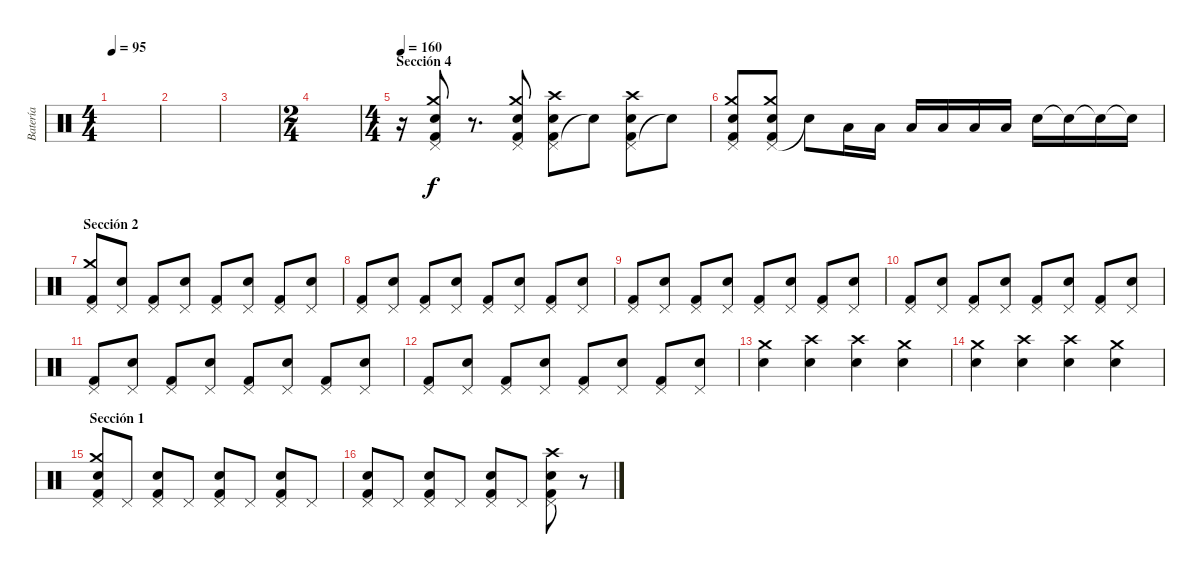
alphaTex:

\track ("Batería" "Batería") {instrument percussion}
\staff {score}
\articulation defaults
\ts (4 4)
\tempo 95
\clef neutral
\ks c
|
|
|
\ts (2 4)
|
\ts (4 4)
\section ("" "Sección 4")
\tempo 160
r.16 ("Pedal Hi-Hat (hit)" "Crash medium (hit)" "Electric Snare (hit)" "Kick (hit) 2").8 r.8{d} ("Pedal Hi-Hat (hit)" "Crash medium (hit)" "Electric Snare (hit)" "Kick (hit) 2").8 ("Pedal Hi-Hat (hit)" "Crash high (hit)" "Electric Snare (hit)" "Kick (hit) 2").8 "Electric Snare (hit)"{t}.8 ("Pedal Hi-Hat (hit)" "Crash high (hit)" "Electric Snare (hit)" "Kick (hit) 2").8 "Electric Snare (hit)"{t}.8 |
("Pedal Hi-Hat (hit)" "Crash medium (hit)" "Electric Snare (hit)" "Kick (hit) 2").8 ("Pedal Hi-Hat (hit)" "Crash medium (hit)" "Electric Snare (hit)" "Kick (hit) 2").8 "Snare (hit)"{t}.8 "Low Tom (hit)".16 "Low Tom (hit)".16 "Low Tom (hit)".16 "Low Tom (hit)".16 "Low Tom (hit)".16 "Low Tom (hit)".16 "Electric Snare (hit)".16 "Snare (hit)"{t}.16 "Snare (hit)"{t}.16 "Snare (hit)"{t}.16 |
\section ("" "Sección 2")
("Pedal Hi-Hat (hit)" "Crash medium (hit)" "Kick (hit) 2").8 ("Pedal Hi-Hat (hit)" "Electric Snare (hit)").8 ("Pedal Hi-Hat (hit)" "Kick (hit) 2").8 ("Pedal Hi-Hat (hit)" "Electric Snare (hit)").8 ("Pedal Hi-Hat (hit)" "Kick (hit) 2").8 ("Pedal Hi-Hat (hit)" "Electric Snare (hit)").8 ("Pedal Hi-Hat (hit)" "Kick (hit) 2").8 ("Pedal Hi-Hat (hit)" "Electric Snare (hit)").8 |
("Pedal Hi-Hat (hit)" "Kick (hit) 2").8 ("Pedal Hi-Hat (hit)" "Electric Snare (hit)").8 ("Pedal Hi-Hat (hit)" "Kick (hit) 2").8 ("Pedal Hi-Hat (hit)" "Electric Snare (hit)").8 ("Pedal Hi-Hat (hit)" "Kick (hit) 2").8 ("Pedal Hi-Hat (hit)" "Electric Snare (hit)").8 ("Pedal Hi-Hat (hit)" "Kick (hit) 2").8 ("Pedal Hi-Hat (hit)" "Electric Snare (hit)").8 |
("Pedal Hi-Hat (hit)" "Kick (hit) 2").8 ("Pedal Hi-Hat (hit)" "Electric Snare (hit)").8 ("Pedal Hi-Hat (hit)" "Kick (hit) 2").8 ("Pedal Hi-Hat (hit)" "Electric Snare (hit)").8 ("Pedal Hi-Hat (hit)" "Kick (hit) 2").8 ("Pedal Hi-Hat (hit)" "Electric Snare (hit)").8 ("Pedal Hi-Hat (hit)" "Kick (hit) 2").8 ("Pedal Hi-Hat (hit)" "Electric Snare (hit)").8 |
("Pedal Hi-Hat (hit)" "Kick (hit) 2").8 ("Pedal Hi-Hat (hit)" "Electric Snare (hit)").8 ("Pedal Hi-Hat (hit)" "Kick (hit) 2").8 ("Pedal Hi-Hat (hit)" "Electric Snare (hit)").8 ("Pedal Hi-Hat (hit)" "Kick (hit) 2").8 ("Pedal Hi-Hat (hit)" "Electric Snare (hit)").8 ("Pedal Hi-Hat (hit)" "Kick (hit) 2").8 ("Pedal Hi-Hat (hit)" "Electric Snare (hit)").8 |
("Pedal Hi-Hat (hit)" "Kick (hit) 2").8 ("Pedal Hi-Hat (hit)" "Electric Snare (hit)").8 ("Pedal Hi-Hat (hit)" "Kick (hit) 2").8 ("Pedal Hi-Hat (hit)" "Electric Snare (hit)").8 ("Pedal Hi-Hat (hit)" "Kick (hit) 2").8 ("Pedal Hi-Hat (hit)" "Electric Snare (hit)").8 ("Pedal Hi-Hat (hit)" "Kick (hit) 2").8 ("Pedal Hi-Hat (hit)" "Electric Snare (hit)").8 |
("Pedal Hi-Hat (hit)" "Kick (hit) 2").8 ("Pedal Hi-Hat (hit)" "Electric Snare (hit)").8 ("Pedal Hi-Hat (hit)" "Kick (hit) 2").8 ("Pedal Hi-Hat (hit)" "Electric Snare (hit)").8 ("Pedal Hi-Hat (hit)" "Kick (hit) 2").8 ("Pedal Hi-Hat (hit)" "Electric Snare (hit)").8 ("Pedal Hi-Hat (hit)" "Kick (hit) 2").8 ("Pedal Hi-Hat (hit)" "Electric Snare (hit)").8 |
("Crash medium (hit)" "Electric Snare (hit)").4 ("Crash high (hit)" "Electric Snare (hit)").4 ("Crash high (hit)" "Electric Snare (hit)").4 ("Crash medium (hit)" "Electric Snare (hit)").4 |
("Crash medium (hit)" "Electric Snare (hit)").4 ("Crash high (hit)" "Electric Snare (hit)").4 ("Crash high (hit)" "Electric Snare (hit)").4 ("Crash medium (hit)" "Electric Snare (hit)").4 |
\section ("" "Sección 1")
("Pedal Hi-Hat (hit)" "Crash medium (hit)" "Electric Snare (hit)" "Kick (hit) 2").8 "Pedal Hi-Hat (hit)".8 ("Pedal Hi-Hat (hit)" "Electric Snare (hit)" "Kick (hit) 2").8 "Pedal Hi-Hat (hit)".8 ("Pedal Hi-Hat (hit)" "Electric Snare (hit)" "Kick (hit) 2").8 "Pedal Hi-Hat (hit)".8 ("Pedal Hi-Hat (hit)" "Electric Snare (hit)" "Kick (hit) 2").8 "Pedal Hi-Hat (hit)".8 |
("Pedal Hi-Hat (hit)" "Electric Snare (hit)" "Kick (hit) 2").8 "Pedal Hi-Hat (hit)".8 ("Pedal Hi-Hat (hit)" "Electric Snare (hit)" "Kick (hit) 2").8 "Pedal Hi-Hat (hit)".8 ("Pedal Hi-Hat (hit)" "Electric Snare (hit)" "Kick (hit) 2").8 "Pedal Hi-Hat (hit)".8 ("Pedal Hi-Hat (hit)" "Crash high (hit)" "Electric Snare (hit)" "Kick (hit) 2").8 r.8
